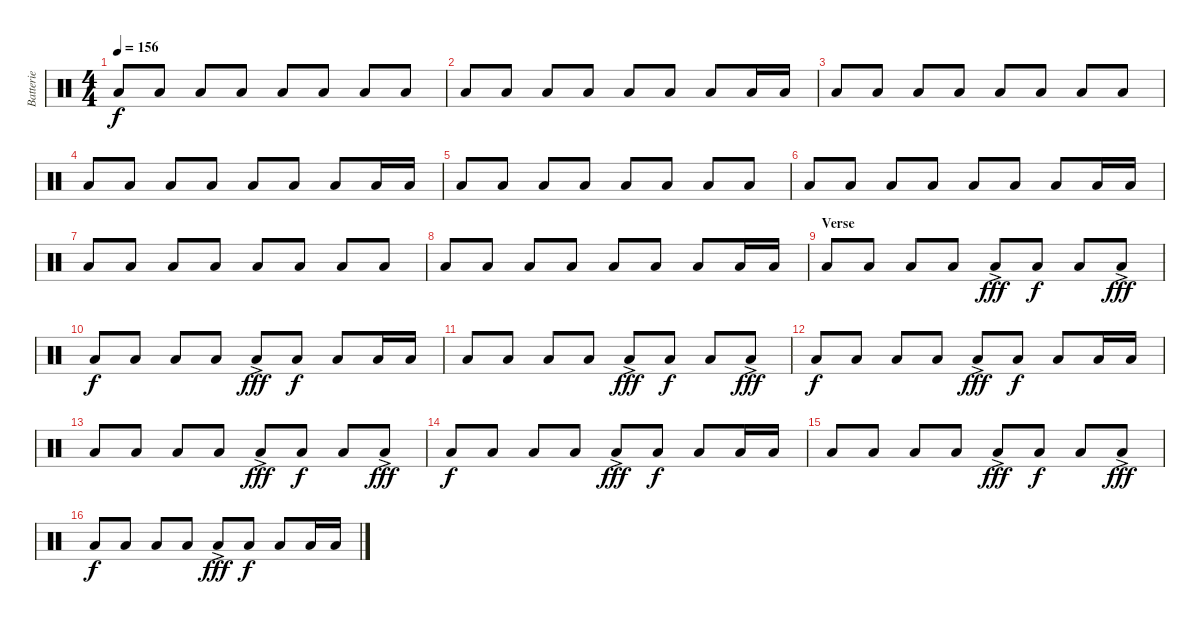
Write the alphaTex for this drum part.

\track ("Batterie" "Batterie") {instrument percussion}
\staff {score}
\articulation defaults
\ts (4 4)
\tempo 156
\clef neutral
\ks c "Low Floor Tom (hit)".8{dy f} "Low Floor Tom (hit)".8 "Low Floor Tom (hit)".8 "Low Floor Tom (hit)".8 "Low Floor Tom (hit)".8 "Low Floor Tom (hit)".8 "Low Floor Tom (hit)".8 "Low Floor Tom (hit)".8
|
"Low Floor Tom (hit)".8 "Low Floor Tom (hit)".8 "Low Floor Tom (hit)".8 "Low Floor Tom (hit)".8 "Low Floor Tom (hit)".8 "Low Floor Tom (hit)".8 "Low Floor Tom (hit)".8 "Low Floor Tom (hit)".16 "Low Floor Tom (hit)".16 |
"Low Floor Tom (hit)".8 "Low Floor Tom (hit)".8 "Low Floor Tom (hit)".8 "Low Floor Tom (hit)".8 "Low Floor Tom (hit)".8 "Low Floor Tom (hit)".8 "Low Floor Tom (hit)".8 "Low Floor Tom (hit)".8 |
"Low Floor Tom (hit)".8 "Low Floor Tom (hit)".8 "Low Floor Tom (hit)".8 "Low Floor Tom (hit)".8 "Low Floor Tom (hit)".8 "Low Floor Tom (hit)".8 "Low Floor Tom (hit)".8 "Low Floor Tom (hit)".16 "Low Floor Tom (hit)".16 |
"Low Floor Tom (hit)".8 "Low Floor Tom (hit)".8 "Low Floor Tom (hit)".8 "Low Floor Tom (hit)".8 "Low Floor Tom (hit)".8 "Low Floor Tom (hit)".8 "Low Floor Tom (hit)".8 "Low Floor Tom (hit)".8 |
"Low Floor Tom (hit)".8 "Low Floor Tom (hit)".8 "Low Floor Tom (hit)".8 "Low Floor Tom (hit)".8 "Low Floor Tom (hit)".8 "Low Floor Tom (hit)".8 "Low Floor Tom (hit)".8 "Low Floor Tom (hit)".16 "Low Floor Tom (hit)".16 |
"Low Floor Tom (hit)".8 "Low Floor Tom (hit)".8 "Low Floor Tom (hit)".8 "Low Floor Tom (hit)".8 "Low Floor Tom (hit)".8 "Low Floor Tom (hit)".8 "Low Floor Tom (hit)".8 "Low Floor Tom (hit)".8 |
"Low Floor Tom (hit)".8 "Low Floor Tom (hit)".8 "Low Floor Tom (hit)".8 "Low Floor Tom (hit)".8 "Low Floor Tom (hit)".8 "Low Floor Tom (hit)".8 "Low Floor Tom (hit)".8 "Low Floor Tom (hit)".16 "Low Floor Tom (hit)".16 |
\section ("" "Verse")
"Low Floor Tom (hit)".8 "Low Floor Tom (hit)".8 "Low Floor Tom (hit)".8 "Low Floor Tom (hit)".8 "Low Floor Tom (hit)"{ac}.8{dy fff} "Low Floor Tom (hit)".8{dy f} "Low Floor Tom (hit)".8 "Low Floor Tom (hit)"{ac}.8{dy fff} |
"Low Floor Tom (hit)".8{dy f} "Low Floor Tom (hit)".8 "Low Floor Tom (hit)".8 "Low Floor Tom (hit)".8 "Low Floor Tom (hit)"{ac}.8{dy fff} "Low Floor Tom (hit)".8{dy f} "Low Floor Tom (hit)".8 "Low Floor Tom (hit)".16 "Low Floor Tom (hit)".16 |
"Low Floor Tom (hit)".8 "Low Floor Tom (hit)".8 "Low Floor Tom (hit)".8 "Low Floor Tom (hit)".8 "Low Floor Tom (hit)"{ac}.8{dy fff} "Low Floor Tom (hit)".8{dy f} "Low Floor Tom (hit)".8 "Low Floor Tom (hit)"{ac}.8{dy fff} |
"Low Floor Tom (hit)".8{dy f} "Low Floor Tom (hit)".8 "Low Floor Tom (hit)".8 "Low Floor Tom (hit)".8 "Low Floor Tom (hit)"{ac}.8{dy fff} "Low Floor Tom (hit)".8{dy f} "Low Floor Tom (hit)".8 "Low Floor Tom (hit)".16 "Low Floor Tom (hit)".16 |
"Low Floor Tom (hit)".8 "Low Floor Tom (hit)".8 "Low Floor Tom (hit)".8 "Low Floor Tom (hit)".8 "Low Floor Tom (hit)"{ac}.8{dy fff} "Low Floor Tom (hit)".8{dy f} "Low Floor Tom (hit)".8 "Low Floor Tom (hit)"{ac}.8{dy fff} |
"Low Floor Tom (hit)".8{dy f} "Low Floor Tom (hit)".8 "Low Floor Tom (hit)".8 "Low Floor Tom (hit)".8 "Low Floor Tom (hit)"{ac}.8{dy fff} "Low Floor Tom (hit)".8{dy f} "Low Floor Tom (hit)".8 "Low Floor Tom (hit)".16 "Low Floor Tom (hit)".16 |
"Low Floor Tom (hit)".8 "Low Floor Tom (hit)".8 "Low Floor Tom (hit)".8 "Low Floor Tom (hit)".8 "Low Floor Tom (hit)"{ac}.8{dy fff} "Low Floor Tom (hit)".8{dy f} "Low Floor Tom (hit)".8 "Low Floor Tom (hit)"{ac}.8{dy fff} |
"Low Floor Tom (hit)".8{dy f} "Low Floor Tom (hit)".8 "Low Floor Tom (hit)".8 "Low Floor Tom (hit)".8 "Low Floor Tom (hit)"{ac}.8{dy fff} "Low Floor Tom (hit)".8{dy f} "Low Floor Tom (hit)".8 "Low Floor Tom (hit)".16 "Low Floor Tom (hit)".16
